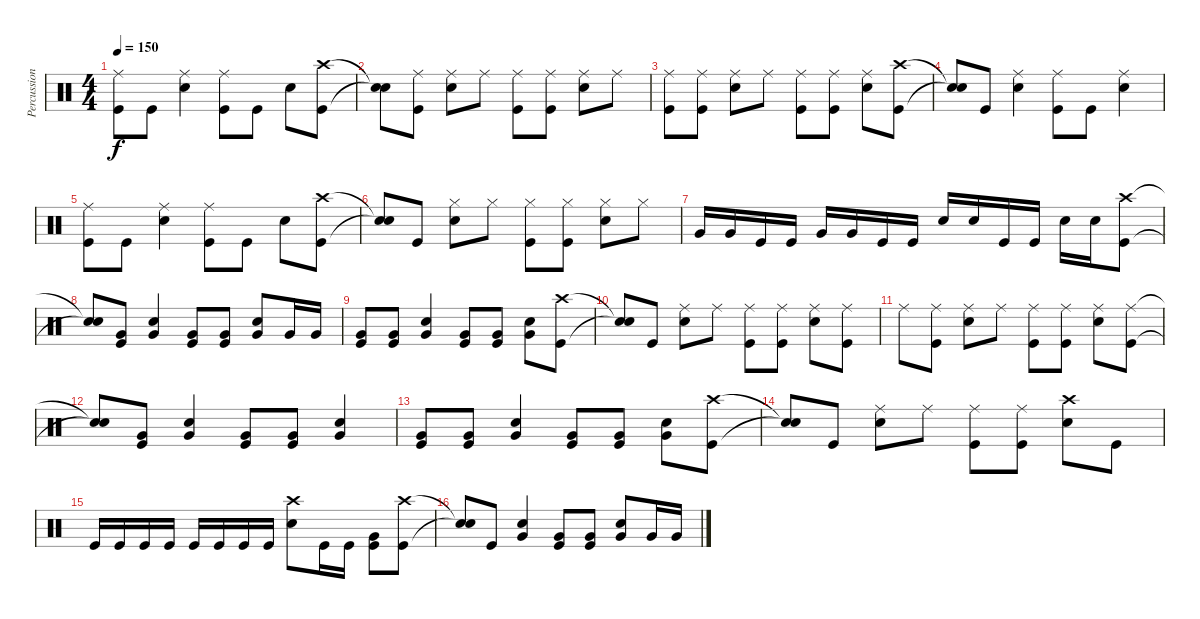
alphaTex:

\track ("Percussion" "Percussion") {instrument percussion}
\staff {score}
\articulation defaults
\ts (4 4)
\tempo 150
\clef neutral
\ks c
("Ride (middle)" "Kick (hit)").8{dy f} "Kick (hit)".8 ("Ride (middle)" "Electric Snare (hit)").4 ("Ride (middle)" "Kick (hit)").8 "Kick (hit)".8 "Electric Snare (hit)".8 ("Crash high (hit)" "Kick (hit)").8 |
("Snare (hit)"{t} "Snare (hit)"{t}).8 ("Ride (middle)" "Kick (hit)").8 ("Ride (middle)" "Electric Snare (hit)").8 "Ride (middle)".8 ("Ride (middle)" "Kick (hit)").8 ("Ride (middle)" "Kick (hit)").8 ("Ride (middle)" "Electric Snare (hit)").8 "Ride (middle)".8 |
("Ride (middle)" "Kick (hit)").8 ("Ride (middle)" "Kick (hit)").8 ("Ride (middle)" "Electric Snare (hit)").8 "Ride (middle)".8 ("Ride (middle)" "Kick (hit)").8 ("Ride (middle)" "Kick (hit)").8 ("Ride (middle)" "Electric Snare (hit)").8 ("Crash high (hit)" "Kick (hit)").8 |
("Snare (hit)"{t} "Snare (hit)"{t}).8 "Kick (hit)".8 ("Ride (middle)" "Electric Snare (hit)").4 ("Ride (middle)" "Kick (hit)").8 "Kick (hit)".8 ("Ride (middle)" "Electric Snare (hit)").4 |
("Ride (middle)" "Kick (hit)").8 "Kick (hit)".8 ("Ride (middle)" "Electric Snare (hit)").4 ("Ride (middle)" "Kick (hit)").8 "Kick (hit)".8 "Electric Snare (hit)".8 ("Crash high (hit)" "Kick (hit)").8 |
("Snare (hit)"{t} "Snare (hit)"{t}).8 "Kick (hit)".8 ("Hi-Hat (closed)" "Electric Snare (hit)").8 "Hi-Hat (closed)".8 ("Hi-Hat (closed)" "Kick (hit)").8 ("Hi-Hat (closed)" "Kick (hit)").8 ("Hi-Hat (closed)" "Electric Snare (hit)").8 "Hi-Hat (closed)".8 |
"Very Low Tom (hit)".16 "Very Low Tom (hit)".16 "Kick (hit)".16 "Kick (hit)".16 "Very Low Tom (hit)".16 "Very Low Tom (hit)".16 "Kick (hit)".16 "Kick (hit)".16 "Electric Snare (hit)".16 "Electric Snare (hit)".16 "Kick (hit)".16 "Kick (hit)".16 "Electric Snare (hit)".16 "Electric Snare (hit)".16 ("Crash high (hit)" "Kick (hit)").8 |
("Snare (hit)"{t} "Snare (hit)"{t}).8 ("Very Low Tom (hit)" "Kick (hit)").8 ("Very Low Tom (hit)" "Electric Snare (hit)").4 ("Very Low Tom (hit)" "Kick (hit)").8 ("Very Low Tom (hit)" "Kick (hit)").8 ("Electric Snare (hit)" "Very Low Tom (hit)").8 "Very Low Tom (hit)".16 "Very Low Tom (hit)".16 |
("Very Low Tom (hit)" "Kick (hit)").8 ("Very Low Tom (hit)" "Kick (hit)").8 ("Very Low Tom (hit)" "Electric Snare (hit)").4 ("Very Low Tom (hit)" "Kick (hit)").8 ("Very Low Tom (hit)" "Kick (hit)").8 ("Very Low Tom (hit)" "Electric Snare (hit)").8 ("Crash high (hit)" "Kick (hit)").8 |
("Snare (hit)"{t} "Snare (hit)"{t}).8 "Kick (hit)".8 ("Ride (middle)" "Electric Snare (hit)").8 "Ride (middle)".8 ("Ride (middle)" "Kick (hit)").8 ("Ride (middle)" "Kick (hit)").8 ("Ride (middle)" "Electric Snare (hit)").8 ("Ride (middle)" "Kick (hit)").8 |
"Ride (middle)".8 ("Ride (middle)" "Kick (hit)").8 ("Ride (middle)" "Electric Snare (hit)").8 "Ride (middle)".8 ("Ride (middle)" "Kick (hit)").8 ("Ride (middle)" "Kick (hit)").8 ("Ride (middle)" "Electric Snare (hit)").8 ("Ride (middle)" "Kick (hit)").8 |
("Snare (hit)"{t} "Snare (hit)"{t}).8 ("Very Low Tom (hit)" "Kick (hit)").8 ("Electric Snare (hit)" "Very Low Tom (hit)").4 ("Very Low Tom (hit)" "Kick (hit)").8 ("Very Low Tom (hit)" "Kick (hit)").8 ("Electric Snare (hit)" "Very Low Tom (hit)").4 |
("Very Low Tom (hit)" "Kick (hit)").8 ("Very Low Tom (hit)" "Kick (hit)").8 ("Very Low Tom (hit)" "Electric Snare (hit)").4 ("Very Low Tom (hit)" "Kick (hit)").8 ("Very Low Tom (hit)" "Kick (hit)").8 ("Very Low Tom (hit)" "Electric Snare (hit)").8 ("Crash high (hit)" "Kick (hit)").8 |
("Snare (hit)"{t} "Snare (hit)"{t}).8 "Kick (hit)".8 ("Ride (middle)" "Electric Snare (hit)").8 "Ride (middle)".8 ("Ride (middle)" "Kick (hit)").8 ("Ride (middle)" "Kick (hit)").8 ("Crash high (hit)" "Electric Snare (hit)").8 "Kick (hit)".8 |
"Kick (hit)".16 "Kick (hit)".16 "Kick (hit)".16 "Kick (hit)".16 "Kick (hit)".16 "Kick (hit)".16 "Kick (hit)".16 "Kick (hit)".16 ("Crash high (hit)" "Electric Snare (hit)").8 "Kick (hit)".16 "Kick (hit)".16 ("Very Low Tom (hit)" "Kick (hit)").8 ("Crash high (hit)" "Kick (hit)").8 |
("Snare (hit)"{t} "Snare (hit)"{t}).8 "Kick (hit)".8 ("Electric Snare (hit)" "Very Low Tom (hit)").4 ("Very Low Tom (hit)" "Kick (hit)").8 ("Very Low Tom (hit)" "Kick (hit)").8 ("Electric Snare (hit)" "Very Low Tom (hit)").8 "Very Low Tom (hit)".16 "Very Low Tom (hit)".16
